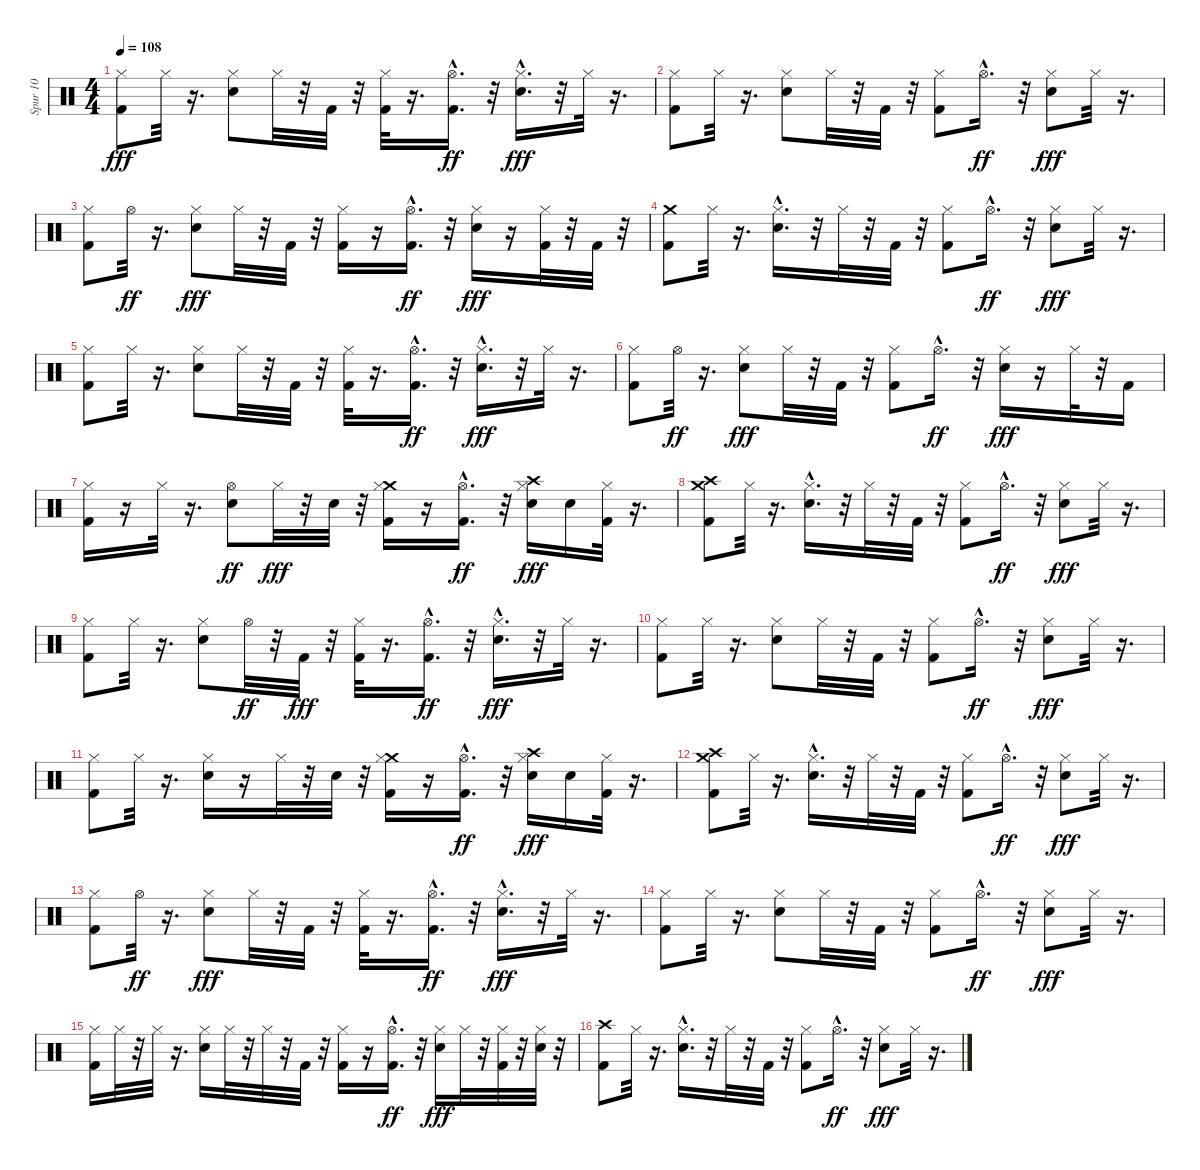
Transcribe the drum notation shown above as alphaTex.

\track ("Spur 10" "Spur 10") {instrument percussion}
\staff {score}
\articulation defaults
\ts (4 4)
\tempo 108
\clef neutral
\ks c
("Kick (hit) 2" "Hi-Hat (closed)").8{dy fff} "Hi-Hat (closed)".32 r.16{d} ("Snare (hit) 2" "Hi-Hat (closed)").8 "Hi-Hat (closed)".32 r.32 "Kick (hit) 2".32 r.32 ("Kick (hit) 2" "Hi-Hat (closed)").32 r.16{d} ("Kick (hit) 2" "Hi-Hat (open)"{hac}).16{d dy ff} r.32 ("Snare (hit) 2"{hac} "Hi-Hat (closed)").16{d dy fff} r.32 "Hi-Hat (closed)".32 r.16{d} |
("Kick (hit) 2" "Hi-Hat (closed)").8 "Hi-Hat (closed)".32 r.16{d} ("Snare (hit) 2" "Hi-Hat (closed)").8 "Hi-Hat (closed)".32 r.32 "Kick (hit) 2".32 r.32 ("Kick (hit) 2" "Hi-Hat (closed)").8 "Hi-Hat (open)"{hac}.16{d dy ff} r.32 ("Snare (hit) 2" "Hi-Hat (closed)").8{dy fff} "Hi-Hat (closed)".32 r.16{d} |
("Kick (hit) 2" "Hi-Hat (closed)").8 "Hi-Hat (open)".32{dy ff} r.16{d} ("Snare (hit) 2" "Hi-Hat (closed)").8{dy fff} "Hi-Hat (closed)".32 r.32 "Kick (hit) 2".32 r.32 ("Kick (hit) 2" "Hi-Hat (closed)").16 r.16 ("Kick (hit) 2" "Hi-Hat (open)"{hac}).16{d dy ff} r.32 ("Snare (hit) 2" "Hi-Hat (closed)").16{dy fff} r.16 ("Kick (hit) 2" "Hi-Hat (closed)").32 r.32 "Kick (hit) 2".32 r.32 |
("Kick (hit) 2" "Crash medium (hit)").8 "Hi-Hat (closed)".32 r.16{d} ("Snare (hit) 2"{hac} "Hi-Hat (closed)").16{d} r.32 "Hi-Hat (closed)".32 r.32 "Kick (hit) 2".32 r.32 ("Kick (hit) 2" "Hi-Hat (closed)").8 "Hi-Hat (open)"{hac}.16{d dy ff} r.32 ("Snare (hit) 2" "Hi-Hat (closed)").8{dy fff} "Hi-Hat (closed)".32 r.16{d} |
("Kick (hit) 2" "Hi-Hat (closed)").8 "Hi-Hat (closed)".32 r.16{d} ("Snare (hit) 2" "Hi-Hat (closed)").8 "Hi-Hat (closed)".32 r.32 "Kick (hit) 2".32 r.32 ("Kick (hit) 2" "Hi-Hat (closed)").32 r.16{d} ("Kick (hit) 2" "Hi-Hat (open)"{hac}).16{d dy ff} r.32 ("Snare (hit) 2"{hac} "Hi-Hat (closed)").16{d dy fff} r.32 "Hi-Hat (closed)".32 r.16{d} |
("Kick (hit) 2" "Hi-Hat (closed)").8 "Hi-Hat (open)".32{dy ff} r.16{d} ("Snare (hit) 2" "Hi-Hat (closed)").8{dy fff} "Hi-Hat (closed)".32 r.32 "Kick (hit) 2".32 r.32 ("Kick (hit) 2" "Hi-Hat (closed)").8 "Hi-Hat (open)"{hac}.16{d dy ff} r.32 ("Snare (hit) 2" "Hi-Hat (closed)").16{dy fff} r.16 "Hi-Hat (closed)".32 r.32 "Kick (hit) 2".16 |
("Kick (hit) 2" "Hi-Hat (closed)").16 r.16 "Hi-Hat (closed)".32 r.16{d} ("Snare (hit) 2" "Hi-Hat (open)").8{dy ff} "Hi-Hat (closed)".32{dy fff} r.32 "Electric Snare (hit)".32 r.32 ("Crash medium (hit)" "Kick (hit) 2" "Hi-Hat (closed)").16 r.16 ("Kick (hit) 2" "Hi-Hat (open)"{hac}).16{d dy ff} r.32 ("Crash high (hit)" "Electric Snare (hit)" "Hi-Hat (closed)").16{dy fff} "Electric Snare (hit)".16 ("Kick (hit) 2" "Hi-Hat (closed)").32 r.16{d} |
("Kick (hit) 2" "Crash medium (hit)" "Crash high (hit)").8 "Hi-Hat (closed)".32 r.16{d} ("Snare (hit) 2"{hac} "Hi-Hat (closed)").16{d} r.32 "Hi-Hat (closed)".32 r.32 "Kick (hit) 2".32 r.32 ("Kick (hit) 2" "Hi-Hat (closed)").8 "Hi-Hat (open)"{hac}.16{d dy ff} r.32 ("Snare (hit) 2" "Hi-Hat (closed)").8{dy fff} "Hi-Hat (closed)".32 r.16{d} |
("Kick (hit) 2" "Hi-Hat (closed)").8 "Hi-Hat (closed)".32 r.16{d} ("Snare (hit) 2" "Hi-Hat (closed)").8 "Hi-Hat (open)".32{dy ff} r.32 "Kick (hit) 2".32{dy fff} r.32 ("Kick (hit) 2" "Hi-Hat (closed)").32 r.16{d} ("Kick (hit) 2" "Hi-Hat (open)"{hac}).16{d dy ff} r.32 ("Snare (hit) 2"{hac} "Hi-Hat (closed)").16{d dy fff} r.32 "Hi-Hat (closed)".32 r.16{d} |
("Kick (hit) 2" "Hi-Hat (closed)").8 "Hi-Hat (closed)".32 r.16{d} ("Snare (hit) 2" "Hi-Hat (closed)").8 "Hi-Hat (closed)".32 r.32 "Kick (hit) 2".32 r.32 ("Kick (hit) 2" "Hi-Hat (closed)").8 "Hi-Hat (open)"{hac}.16{d dy ff} r.32 ("Snare (hit) 2" "Hi-Hat (closed)").8{dy fff} "Hi-Hat (closed)".32 r.16{d} |
("Kick (hit) 2" "Hi-Hat (closed)").8 "Hi-Hat (closed)".32 r.16{d} ("Snare (hit) 2" "Hi-Hat (closed)").16 r.16 "Hi-Hat (closed)".32 r.32 "Electric Snare (hit)".32 r.32 ("Kick (hit) 2" "Crash medium (hit)" "Hi-Hat (closed)").16 r.16 ("Kick (hit) 2" "Hi-Hat (open)"{hac}).16{d dy ff} r.32 ("Electric Snare (hit)" "Crash high (hit)" "Hi-Hat (closed)").16{dy fff} "Electric Snare (hit)".16 ("Kick (hit) 2" "Hi-Hat (closed)").32 r.16{d} |
("Kick (hit) 2" "Crash medium (hit)" "Crash high (hit)").8 "Hi-Hat (closed)".32 r.16{d} ("Snare (hit) 2"{hac} "Hi-Hat (closed)").16{d} r.32 "Hi-Hat (closed)".32 r.32 "Kick (hit) 2".32 r.32 ("Kick (hit) 2" "Hi-Hat (closed)").8 "Hi-Hat (open)"{hac}.16{d dy ff} r.32 ("Snare (hit) 2" "Hi-Hat (closed)").8{dy fff} "Hi-Hat (closed)".32 r.16{d} |
("Kick (hit) 2" "Hi-Hat (closed)").8 "Hi-Hat (open)".32{dy ff} r.16{d} ("Snare (hit) 2" "Hi-Hat (closed)").8{dy fff} "Hi-Hat (closed)".32 r.32 "Kick (hit) 2".32 r.32 ("Kick (hit) 2" "Hi-Hat (closed)").32 r.16{d} ("Kick (hit) 2" "Hi-Hat (open)"{hac}).16{d dy ff} r.32 ("Snare (hit) 2"{hac} "Hi-Hat (closed)").16{d dy fff} r.32 "Hi-Hat (closed)".32 r.16{d} |
("Kick (hit) 2" "Hi-Hat (closed)").8 "Hi-Hat (closed)".32 r.16{d} ("Snare (hit) 2" "Hi-Hat (closed)").8 "Hi-Hat (closed)".32 r.32 "Kick (hit) 2".32 r.32 ("Kick (hit) 2" "Hi-Hat (closed)").8 "Hi-Hat (open)"{hac}.16{d dy ff} r.32 ("Snare (hit) 2" "Hi-Hat (closed)").8{dy fff} "Hi-Hat (closed)".32 r.16{d} |
("Kick (hit) 2" "Hi-Hat (closed)").16 "Hi-Hat (closed)".32 r.32 "Hi-Hat (closed)".32 r.16{d} ("Snare (hit) 2" "Hi-Hat (closed)").16 "Hi-Hat (closed)".32 r.32 "Hi-Hat (closed)".32 r.32 "Kick (hit) 2".32 r.32 ("Kick (hit) 2" "Hi-Hat (closed)").16 r.16 ("Kick (hit) 2" "Hi-Hat (open)"{hac}).16{d dy ff} r.32 ("Snare (hit) 2" "Hi-Hat (closed)").16{dy fff} "Hi-Hat (closed)".32 r.32 ("Kick (hit) 2" "Hi-Hat (closed)").32 r.32 ("Hi-Hat (closed)" "Electric Snare (hit)").32 r.32 |
("Kick (hit) 2" "Crash high (hit)").8 "Hi-Hat (closed)".32 r.16{d} ("Snare (hit) 2"{hac} "Hi-Hat (closed)").16{d} r.32 "Hi-Hat (closed)".32 r.32 "Kick (hit) 2".32 r.32 ("Kick (hit) 2" "Hi-Hat (closed)").8 "Hi-Hat (open)"{hac}.16{d dy ff} r.32 ("Snare (hit) 2" "Hi-Hat (closed)").8{dy fff} "Hi-Hat (closed)".32 r.16{d}
